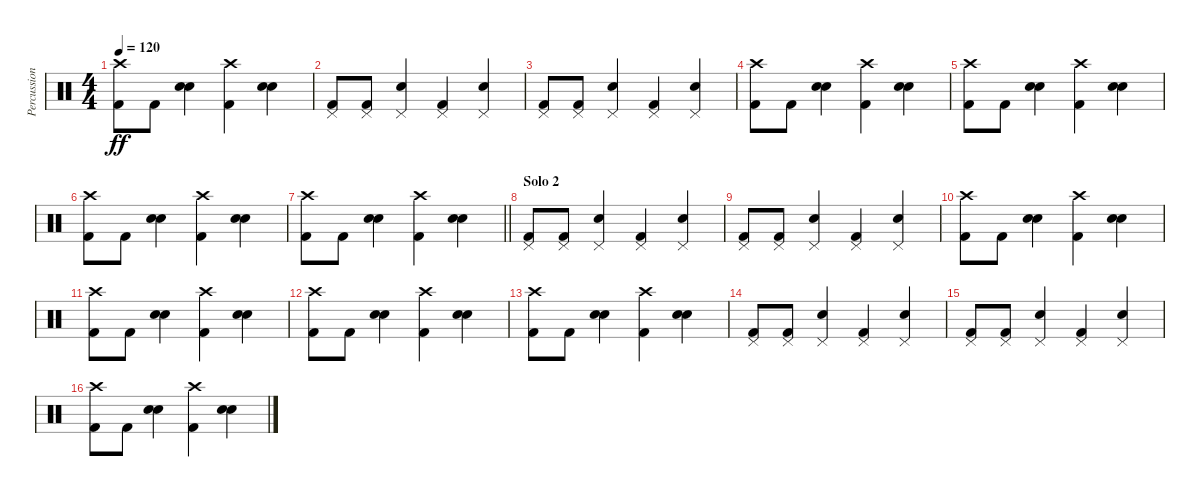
\track ("Percussion" "Percussion") {instrument percussion}
\staff {score}
\articulation defaults
\ts (4 4)
\tempo 120
\clef neutral
\ks c
("Kick (hit) 2" "Crash high (hit)").8{dy ff} "Kick (hit) 2".8 ("Snare (hit) 2" "Snare (hit) 2").4 ("Kick (hit) 2" "Crash high (hit)").4 ("Snare (hit) 2" "Snare (hit) 2").4 |
("Kick (hit) 2" "Pedal Hi-Hat (hit)").8 ("Kick (hit) 2" "Pedal Hi-Hat (hit)").8 ("Snare (hit) 2" "Pedal Hi-Hat (hit)").4 ("Kick (hit) 2" "Pedal Hi-Hat (hit)").4 ("Snare (hit) 2" "Pedal Hi-Hat (hit)").4 |
("Kick (hit) 2" "Pedal Hi-Hat (hit)").8 ("Kick (hit) 2" "Pedal Hi-Hat (hit)").8 ("Snare (hit) 2" "Pedal Hi-Hat (hit)").4 ("Kick (hit) 2" "Pedal Hi-Hat (hit)").4 ("Snare (hit) 2" "Pedal Hi-Hat (hit)").4 |
("Kick (hit) 2" "Crash high (hit)").8 "Kick (hit) 2".8 ("Snare (hit) 2" "Snare (hit) 2").4 ("Kick (hit) 2" "Crash high (hit)").4 ("Snare (hit) 2" "Snare (hit) 2").4 |
("Kick (hit) 2" "Crash high (hit)").8 "Kick (hit) 2".8 ("Snare (hit) 2" "Snare (hit) 2").4 ("Kick (hit) 2" "Crash high (hit)").4 ("Snare (hit) 2" "Snare (hit) 2").4 |
("Kick (hit) 2" "Crash high (hit)").8 "Kick (hit) 2".8 ("Snare (hit) 2" "Snare (hit) 2").4 ("Kick (hit) 2" "Crash high (hit)").4 ("Snare (hit) 2" "Snare (hit) 2").4 |
\barLineRight lightlight
("Kick (hit) 2" "Crash high (hit)").8 "Kick (hit) 2".8 ("Snare (hit) 2" "Snare (hit) 2").4 ("Kick (hit) 2" "Crash high (hit)").4 ("Snare (hit) 2" "Snare (hit) 2").4 |
\section ("" "Solo 2")
("Kick (hit) 2" "Pedal Hi-Hat (hit)").8 ("Kick (hit) 2" "Pedal Hi-Hat (hit)").8 ("Snare (hit) 2" "Pedal Hi-Hat (hit)").4 ("Kick (hit) 2" "Pedal Hi-Hat (hit)").4 ("Snare (hit) 2" "Pedal Hi-Hat (hit)").4 |
("Kick (hit) 2" "Pedal Hi-Hat (hit)").8 ("Kick (hit) 2" "Pedal Hi-Hat (hit)").8 ("Snare (hit) 2" "Pedal Hi-Hat (hit)").4 ("Kick (hit) 2" "Pedal Hi-Hat (hit)").4 ("Snare (hit) 2" "Pedal Hi-Hat (hit)").4 |
("Kick (hit) 2" "Crash high (hit)").8 "Kick (hit) 2".8 ("Snare (hit) 2" "Snare (hit) 2").4 ("Kick (hit) 2" "Crash high (hit)").4 ("Snare (hit) 2" "Snare (hit) 2").4 |
("Kick (hit) 2" "Crash high (hit)").8 "Kick (hit) 2".8 ("Snare (hit) 2" "Snare (hit) 2").4 ("Kick (hit) 2" "Crash high (hit)").4 ("Snare (hit) 2" "Snare (hit) 2").4 |
("Kick (hit) 2" "Crash high (hit)").8 "Kick (hit) 2".8 ("Snare (hit) 2" "Snare (hit) 2").4 ("Kick (hit) 2" "Crash high (hit)").4 ("Snare (hit) 2" "Snare (hit) 2").4 |
("Kick (hit) 2" "Crash high (hit)").8 "Kick (hit) 2".8 ("Snare (hit) 2" "Snare (hit) 2").4 ("Kick (hit) 2" "Crash high (hit)").4 ("Snare (hit) 2" "Snare (hit) 2").4 |
("Kick (hit) 2" "Pedal Hi-Hat (hit)").8 ("Kick (hit) 2" "Pedal Hi-Hat (hit)").8 ("Snare (hit) 2" "Pedal Hi-Hat (hit)").4 ("Kick (hit) 2" "Pedal Hi-Hat (hit)").4 ("Snare (hit) 2" "Pedal Hi-Hat (hit)").4 |
("Kick (hit) 2" "Pedal Hi-Hat (hit)").8 ("Kick (hit) 2" "Pedal Hi-Hat (hit)").8 ("Snare (hit) 2" "Pedal Hi-Hat (hit)").4 ("Kick (hit) 2" "Pedal Hi-Hat (hit)").4 ("Snare (hit) 2" "Pedal Hi-Hat (hit)").4 |
("Kick (hit) 2" "Crash high (hit)").8 "Kick (hit) 2".8 ("Snare (hit) 2" "Snare (hit) 2").4 ("Kick (hit) 2" "Crash high (hit)").4 ("Snare (hit) 2" "Snare (hit) 2").4
